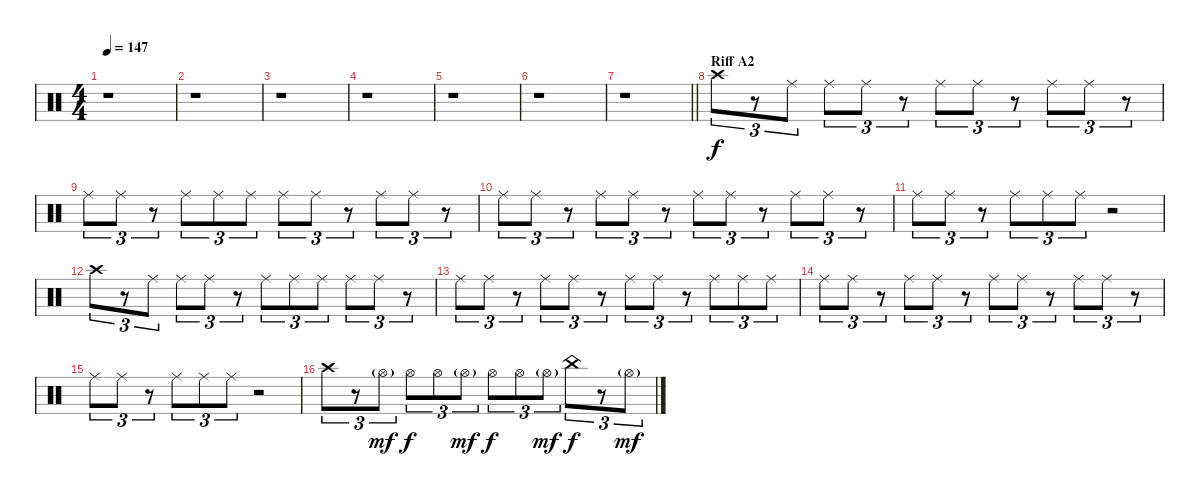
\track "" {instrument percussion}
\staff {score}
\articulation defaults
\ts (4 4)
\tempo 147
\clef neutral
\ks c
r.1{dy f} |
r.1 |
r.1 |
r.1 |
r.1 |
r.1 |
\barLineRight lightlight
r.1 |
\section ("" "Riff A2")
"Crash high (hit)".8{tu (3 2)} r.8{tu (3 2)} "Ride (middle)".8{tu (3 2)} "Ride (middle)".8{tu (3 2)} "Ride (middle)".8{tu (3 2)} r.8{tu (3 2)} "Ride (middle)".8{tu (3 2)} "Ride (middle)".8{tu (3 2)} r.8{tu (3 2)} "Ride (middle)".8{tu (3 2)} "Ride (middle)".8{tu (3 2)} r.8{tu (3 2)} |
"Ride (middle)".8{tu (3 2)} "Ride (middle)".8{tu (3 2)} r.8{tu (3 2)} "Ride (middle)".8{tu (3 2)} "Ride (middle)".8{tu (3 2)} "Ride (middle)".8{tu (3 2)} "Ride (middle)".8{tu (3 2)} "Ride (middle)".8{tu (3 2)} r.8{tu (3 2)} "Ride (middle)".8{tu (3 2)} "Ride (middle)".8{tu (3 2)} r.8{tu (3 2)} |
"Ride (middle)".8{tu (3 2)} "Ride (middle)".8{tu (3 2)} r.8{tu (3 2)} "Ride (middle)".8{tu (3 2)} "Ride (middle)".8{tu (3 2)} r.8{tu (3 2)} "Ride (middle)".8{tu (3 2)} "Ride (middle)".8{tu (3 2)} r.8{tu (3 2)} "Ride (middle)".8{tu (3 2)} "Ride (middle)".8{tu (3 2)} r.8{tu (3 2)} |
"Ride (middle)".8{tu (3 2)} "Ride (middle)".8{tu (3 2)} r.8{tu (3 2)} "Ride (middle)".8{tu (3 2)} "Ride (middle)".8{tu (3 2)} "Ride (middle)".8{tu (3 2)} r.2 |
"Crash high (hit)".8{tu (3 2)} r.8{tu (3 2)} "Ride (middle)".8{tu (3 2)} "Ride (middle)".8{tu (3 2)} "Ride (middle)".8{tu (3 2)} r.8{tu (3 2)} "Ride (middle)".8{tu (3 2)} "Ride (middle)".8{tu (3 2)} "Ride (middle)".8{tu (3 2)} "Ride (middle)".8{tu (3 2)} "Ride (middle)".8{tu (3 2)} r.8{tu (3 2)} |
"Ride (middle)".8{tu (3 2)} "Ride (middle)".8{tu (3 2)} r.8{tu (3 2)} "Ride (middle)".8{tu (3 2)} "Ride (middle)".8{tu (3 2)} r.8{tu (3 2)} "Ride (middle)".8{tu (3 2)} "Ride (middle)".8{tu (3 2)} r.8{tu (3 2)} "Ride (middle)".8{tu (3 2)} "Ride (middle)".8{tu (3 2)} "Ride (middle)".8{tu (3 2)} |
"Ride (middle)".8{tu (3 2)} "Ride (middle)".8{tu (3 2)} r.8{tu (3 2)} "Ride (middle)".8{tu (3 2)} "Ride (middle)".8{tu (3 2)} r.8{tu (3 2)} "Ride (middle)".8{tu (3 2)} "Ride (middle)".8{tu (3 2)} r.8{tu (3 2)} "Ride (middle)".8{tu (3 2)} "Ride (middle)".8{tu (3 2)} r.8{tu (3 2)} |
"Ride (middle)".8{tu (3 2)} "Ride (middle)".8{tu (3 2)} r.8{tu (3 2)} "Ride (middle)".8{tu (3 2)} "Ride (middle)".8{tu (3 2)} "Ride (middle)".8{tu (3 2)} r.2 |
"Crash high (hit)".8{tu (3 2)} r.8{tu (3 2)} "Hi-Hat (open)"{g}.8{tu (3 2) dy mf} "Hi-Hat (open)".8{tu (3 2) dy f} "Hi-Hat (open)".8{tu (3 2)} "Hi-Hat (open)"{g}.8{tu (3 2) dy mf} "Hi-Hat (open)".8{tu (3 2) dy f} "Hi-Hat (open)".8{tu (3 2)} "Hi-Hat (open)"{g}.8{tu (3 2) dy mf} "China (hit)".8{tu (3 2) dy f} r.8{tu (3 2)} "Hi-Hat (open)"{g}.8{tu (3 2) dy mf}
